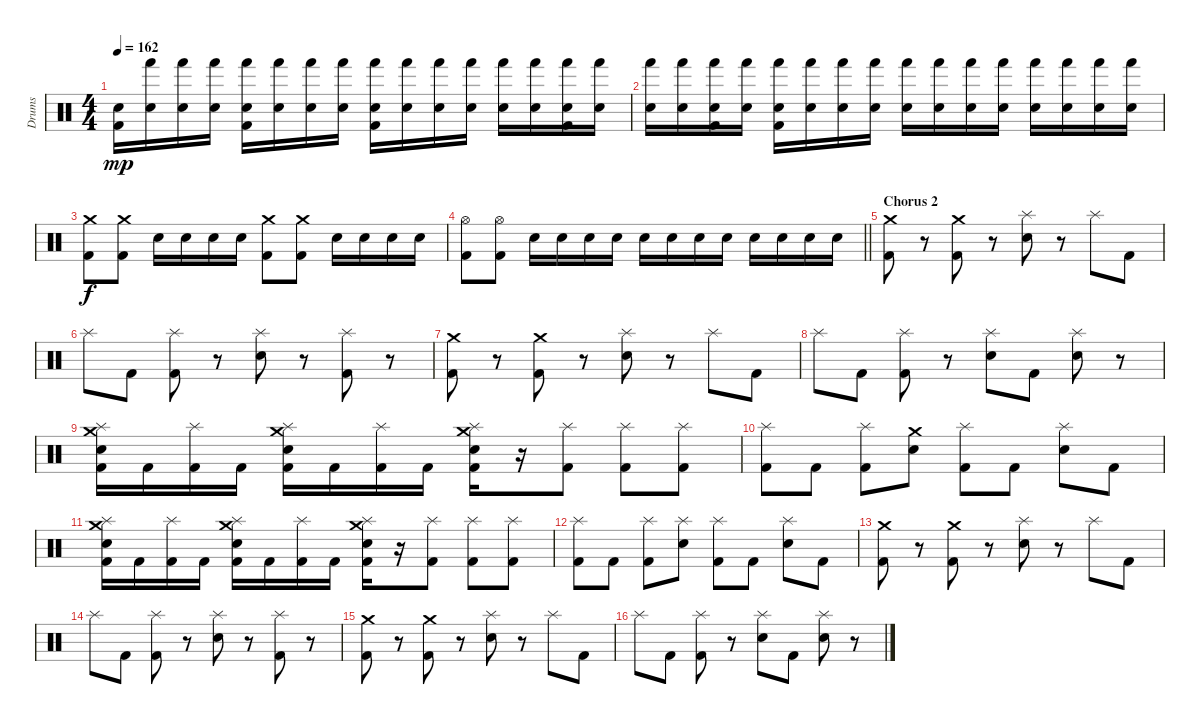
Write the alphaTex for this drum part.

\track ("Drums" "Drums") {instrument percussion}
\staff {score}
\articulation defaults
\ts (4 4)
\tempo 162
\clef neutral
\ks c
("Electric Snare (hit)" "Kick (hit) 2").16{dy mp} ("Hand (hit)" "Electric Snare (hit)").16 ("Hand (hit)" "Electric Snare (hit)").16 ("Hand (hit)" "Electric Snare (hit)").16 ("Hand (hit)" "Electric Snare (hit)" "Kick (hit) 2").16 ("Hand (hit)" "Electric Snare (hit)").16 ("Hand (hit)" "Electric Snare (hit)").16 ("Hand (hit)" "Electric Snare (hit)").16 ("Hand (hit)" "Electric Snare (hit)" "Kick (hit) 2").16 ("Hand (hit)" "Electric Snare (hit)").16 ("Hand (hit)" "Electric Snare (hit)").16 ("Hand (hit)" "Electric Snare (hit)").16 ("Hand (hit)" "Electric Snare (hit)").16 ("Hand (hit)" "Electric Snare (hit)").16 ("Hand (hit)" "Electric Snare (hit)" "Kick (hit) 2").16 ("Hand (hit)" "Electric Snare (hit)").16 |
("Hand (hit)" "Electric Snare (hit)").16 ("Hand (hit)" "Electric Snare (hit)").16 ("Hand (hit)" "Electric Snare (hit)" "Kick (hit) 2").16 ("Hand (hit)" "Electric Snare (hit)").16 ("Hand (hit)" "Electric Snare (hit)" "Kick (hit) 2").16 ("Hand (hit)" "Electric Snare (hit)").16 ("Hand (hit)" "Electric Snare (hit)").16 ("Hand (hit)" "Electric Snare (hit)").16 ("Hand (hit)" "Electric Snare (hit)").16 ("Hand (hit)" "Electric Snare (hit)").16 ("Hand (hit)" "Electric Snare (hit)").16 ("Hand (hit)" "Electric Snare (hit)").16 ("Hand (hit)" "Electric Snare (hit)").16 ("Hand (hit)" "Electric Snare (hit)").16 ("Hand (hit)" "Electric Snare (hit)").16 ("Hand (hit)" "Electric Snare (hit)").16 |
("Crash medium (hit)" "Kick (hit) 2").8{dy f} ("Crash medium (hit)" "Kick (hit) 2").8 "Electric Snare (hit)".16 "Electric Snare (hit)".16 "Electric Snare (hit)".16 "Electric Snare (hit)".16 ("Crash medium (hit)" "Kick (hit) 2").8 ("Crash medium (hit)" "Kick (hit) 2").8 "Electric Snare (hit)".16 "Electric Snare (hit)".16 "Electric Snare (hit)".16 "Electric Snare (hit)".16 |
\barLineRight lightlight
("Hi-Hat (open)" "Kick (hit) 2").8 ("Hi-Hat (open)" "Kick (hit) 2").8 "Electric Snare (hit)".16 "Electric Snare (hit)".16 "Electric Snare (hit)".16 "Electric Snare (hit)".16 "Electric Snare (hit)".16 "Electric Snare (hit)".16 "Electric Snare (hit)".16 "Electric Snare (hit)".16 "Electric Snare (hit)".16 "Electric Snare (hit)".16 "Electric Snare (hit)".16 "Electric Snare (hit)".16 |
\section ("" "Chorus 2")
("Kick (hit) 2" "Crash medium (hit)").8 r.8 ("Kick (hit) 2" "Crash medium (hit)").8 r.8 ("Snare (hit) 2" "Splash (hit)").8 r.8 "Splash (hit)".8 "Kick (hit) 2".8 |
"Splash (hit)".8 "Kick (hit) 2".8 ("Kick (hit) 2" "Splash (hit)").8 r.8 ("Snare (hit) 2" "Splash (hit)").8 r.8 ("Kick (hit) 2" "Splash (hit)").8 r.8 |
("Kick (hit) 2" "Crash medium (hit)").8 r.8 ("Kick (hit) 2" "Crash medium (hit)").8 r.8 ("Snare (hit) 2" "Splash (hit)").8 r.8 "Splash (hit)".8 "Kick (hit) 2".8 |
"Splash (hit)".8 "Kick (hit) 2".8 ("Kick (hit) 2" "Splash (hit)").8 r.8 ("Snare (hit) 2" "Splash (hit)").8 "Kick (hit) 2".8 ("Snare (hit) 2" "Splash (hit)").8 r.8 |
("Snare (hit) 2" "Kick (hit) 2" "Crash medium (hit)" "Splash (hit)").16 "Kick (hit) 2".16 ("Kick (hit) 2" "Splash (hit)").16 "Kick (hit) 2".16 ("Snare (hit) 2" "Kick (hit) 2" "Crash medium (hit)" "Splash (hit)").16 "Kick (hit) 2".16 ("Kick (hit) 2" "Splash (hit)").16 "Kick (hit) 2".16 ("Snare (hit) 2" "Kick (hit) 2" "Crash medium (hit)" "Splash (hit)").16 r.16 ("Kick (hit) 2" "Splash (hit)").8 ("Kick (hit) 2" "Splash (hit)").8 ("Kick (hit) 2" "Splash (hit)").8 |
("Kick (hit) 2" "Splash (hit)").8 "Kick (hit) 2".8 ("Kick (hit) 2" "Splash (hit)").8 ("Snare (hit) 2" "Crash medium (hit)").8 ("Kick (hit) 2" "Splash (hit)").8 "Kick (hit) 2".8 ("Snare (hit) 2" "Splash (hit)").8 "Kick (hit) 2".8 |
("Snare (hit) 2" "Kick (hit) 2" "Crash medium (hit)" "Splash (hit)").16 "Kick (hit) 2".16 ("Kick (hit) 2" "Splash (hit)").16 "Kick (hit) 2".16 ("Snare (hit) 2" "Kick (hit) 2" "Crash medium (hit)" "Splash (hit)").16 "Kick (hit) 2".16 ("Kick (hit) 2" "Splash (hit)").16 "Kick (hit) 2".16 ("Snare (hit) 2" "Kick (hit) 2" "Crash medium (hit)" "Splash (hit)").16 r.16 ("Kick (hit) 2" "Splash (hit)").8 ("Kick (hit) 2" "Splash (hit)").8 ("Kick (hit) 2" "Splash (hit)").8 |
("Kick (hit) 2" "Splash (hit)").8 "Kick (hit) 2".8 ("Kick (hit) 2" "Splash (hit)").8 ("Snare (hit) 2" "Splash (hit)").8 ("Kick (hit) 2" "Splash (hit)").8 "Kick (hit) 2".8 ("Snare (hit) 2" "Splash (hit)").8 "Kick (hit) 2".8 |
("Kick (hit) 2" "Crash medium (hit)").8 r.8 ("Kick (hit) 2" "Crash medium (hit)").8 r.8 ("Snare (hit) 2" "Splash (hit)").8 r.8 "Splash (hit)".8 "Kick (hit) 2".8 |
"Splash (hit)".8 "Kick (hit) 2".8 ("Kick (hit) 2" "Splash (hit)").8 r.8 ("Snare (hit) 2" "Splash (hit)").8 r.8 ("Kick (hit) 2" "Splash (hit)").8 r.8 |
("Kick (hit) 2" "Crash medium (hit)").8 r.8 ("Kick (hit) 2" "Crash medium (hit)").8 r.8 ("Snare (hit) 2" "Splash (hit)").8 r.8 "Splash (hit)".8 "Kick (hit) 2".8 |
"Splash (hit)".8 "Kick (hit) 2".8 ("Kick (hit) 2" "Splash (hit)").8 r.8 ("Snare (hit) 2" "Splash (hit)").8 "Kick (hit) 2".8 ("Snare (hit) 2" "Splash (hit)").8 r.8
